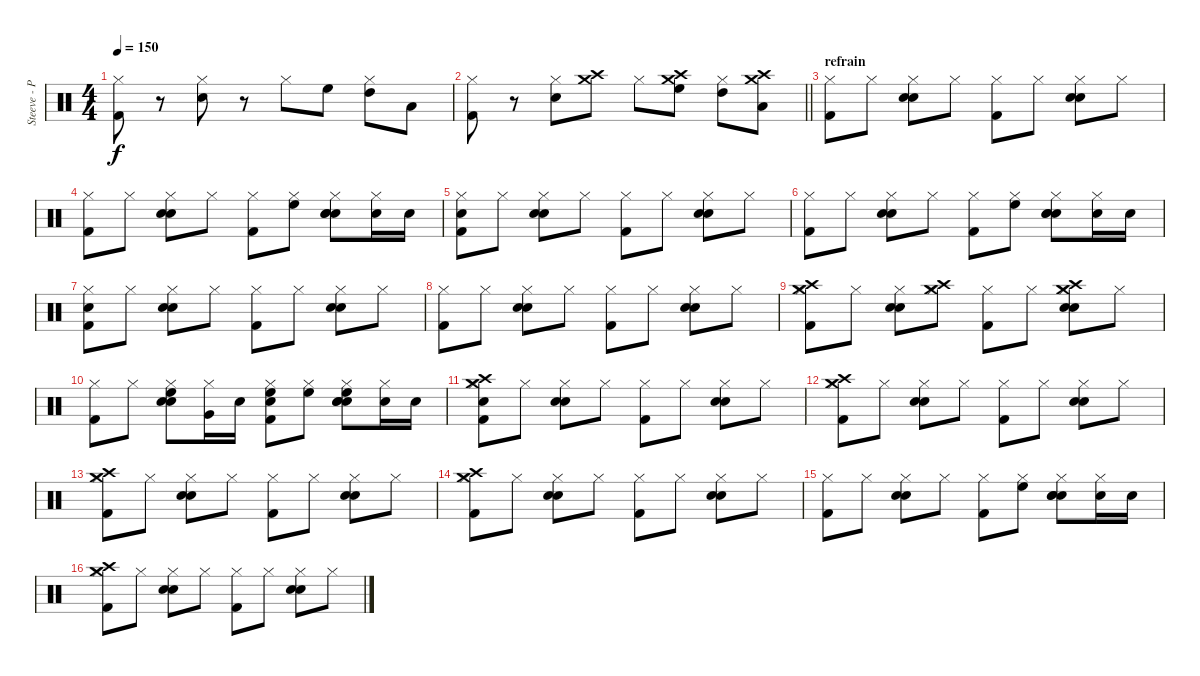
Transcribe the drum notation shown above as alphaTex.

\track ("Steeve - Percussions" "Steeve - P") {instrument percussion}
\staff {score}
\articulation defaults
\ts (4 4)
\tempo 150
\clef neutral
\ks c
("Hi-Hat (closed)" "Kick (hit) 2").8{dy f} r.8 ("Hi-Hat (closed)" "Snare (hit) 2").8 r.8 "Hi-Hat (closed)".8 "High Floor Tom (hit)".8 ("Hi-Hat (closed)" "High Tom (hit)").8 "Low Tom (hit)".8 |
\barLineRight lightlight
("Hi-Hat (closed)" "Kick (hit) 2").8 r.8 ("Hi-Hat (closed)" "Snare (hit) 2").8 ("Crash medium (hit)" "Crash high (hit)").8 "Hi-Hat (closed)".8 ("High Floor Tom (hit)" "Crash medium (hit)" "Crash high (hit)").8 ("Hi-Hat (closed)" "High Tom (hit)").8 ("Low Tom (hit)" "Crash medium (hit)" "Crash high (hit)").8 |
\section ("" "refrain")
("Hi-Hat (closed)" "Kick (hit) 2").8 "Hi-Hat (closed)".8 ("Hi-Hat (closed)" "Snare (hit) 2" "Electric Snare (hit)").8 "Hi-Hat (closed)".8 ("Hi-Hat (closed)" "Kick (hit) 2").8 "Hi-Hat (closed)".8 ("Hi-Hat (closed)" "Snare (hit) 2" "Electric Snare (hit)").8 "Hi-Hat (closed)".8 |
("Hi-Hat (closed)" "Kick (hit) 2").8 "Hi-Hat (closed)".8 ("Hi-Hat (closed)" "Snare (hit) 2" "Electric Snare (hit)").8 "Hi-Hat (closed)".8 ("Hi-Hat (closed)" "Kick (hit) 2").8 ("Hi-Hat (closed)" "High Floor Tom (hit)").8 ("Hi-Hat (closed)" "Snare (hit) 2" "Electric Snare (hit)" "Snare (hit) 2").8 ("Hi-Hat (closed)" "Snare (hit) 2").16 "Snare (hit) 2".16 |
("Hi-Hat (closed)" "Kick (hit) 2" "Snare (hit) 2").8 "Hi-Hat (closed)".8 ("Hi-Hat (closed)" "Snare (hit) 2" "Electric Snare (hit)").8 "Hi-Hat (closed)".8 ("Hi-Hat (closed)" "Kick (hit) 2").8 "Hi-Hat (closed)".8 ("Hi-Hat (closed)" "Snare (hit) 2" "Electric Snare (hit)").8 "Hi-Hat (closed)".8 |
("Hi-Hat (closed)" "Kick (hit) 2").8 "Hi-Hat (closed)".8 ("Hi-Hat (closed)" "Snare (hit) 2" "Electric Snare (hit)").8 "Hi-Hat (closed)".8 ("Hi-Hat (closed)" "Kick (hit) 2").8 ("Hi-Hat (closed)" "High Floor Tom (hit)").8 ("Hi-Hat (closed)" "Snare (hit) 2" "Electric Snare (hit)" "Snare (hit) 2").8 ("Hi-Hat (closed)" "Snare (hit) 2").16 "Snare (hit) 2".16 |
("Hi-Hat (closed)" "Kick (hit) 2" "Snare (hit) 2").8 "Hi-Hat (closed)".8 ("Hi-Hat (closed)" "Snare (hit) 2" "Electric Snare (hit)").8 "Hi-Hat (closed)".8 ("Hi-Hat (closed)" "Kick (hit) 2").8 "Hi-Hat (closed)".8 ("Hi-Hat (closed)" "Snare (hit) 2" "Electric Snare (hit)").8 "Hi-Hat (closed)".8 |
("Hi-Hat (closed)" "Kick (hit) 2").8 "Hi-Hat (closed)".8 ("Hi-Hat (closed)" "Snare (hit) 2" "Electric Snare (hit)").8 "Hi-Hat (closed)".8 ("Hi-Hat (closed)" "Kick (hit) 2").8 "Hi-Hat (closed)".8 ("Hi-Hat (closed)" "Snare (hit) 2" "Electric Snare (hit)").8 "Hi-Hat (closed)".8 |
("Hi-Hat (closed)" "Kick (hit) 2" "Crash high (hit)" "Crash medium (hit)").8 "Hi-Hat (closed)".8 ("Hi-Hat (closed)" "Snare (hit) 2" "Electric Snare (hit)").8 ("Hi-Hat (closed)" "Crash high (hit)" "Crash medium (hit)").8 ("Hi-Hat (closed)" "Kick (hit) 2").8 "Hi-Hat (closed)".8 ("Hi-Hat (closed)" "Snare (hit) 2" "Electric Snare (hit)" "Crash high (hit)" "Crash medium (hit)").8 "Hi-Hat (closed)".8 |
("Hi-Hat (closed)" "Kick (hit) 2").8 "Hi-Hat (closed)".8 ("Hi-Hat (closed)" "Snare (hit) 2" "Electric Snare (hit)" "High Floor Tom (hit)").8 ("Hi-Hat (closed)" "Very Low Tom (hit)").16 "Snare (hit) 2".16 ("Hi-Hat (closed)" "Kick (hit) 2" "Snare (hit) 2" "High Floor Tom (hit)").8 ("Hi-Hat (closed)" "High Floor Tom (hit)").8 ("Hi-Hat (closed)" "Snare (hit) 2" "Electric Snare (hit)" "Snare (hit) 2" "High Floor Tom (hit)").8 ("Hi-Hat (closed)" "Snare (hit) 2").16 "Snare (hit) 2".16 |
("Hi-Hat (closed)" "Kick (hit) 2" "Crash high (hit)" "Snare (hit) 2" "Crash medium (hit)").8 "Hi-Hat (closed)".8 ("Hi-Hat (closed)" "Snare (hit) 2" "Electric Snare (hit)").8 "Hi-Hat (closed)".8 ("Hi-Hat (closed)" "Kick (hit) 2").8 "Hi-Hat (closed)".8 ("Hi-Hat (closed)" "Snare (hit) 2" "Electric Snare (hit)").8 "Hi-Hat (closed)".8 |
("Hi-Hat (closed)" "Kick (hit) 2" "Crash medium (hit)" "Crash high (hit)").8 "Hi-Hat (closed)".8 ("Hi-Hat (closed)" "Snare (hit) 2" "Electric Snare (hit)").8 "Hi-Hat (closed)".8 ("Hi-Hat (closed)" "Kick (hit) 2").8 "Hi-Hat (closed)".8 ("Hi-Hat (closed)" "Snare (hit) 2" "Electric Snare (hit)").8 "Hi-Hat (closed)".8 |
("Hi-Hat (closed)" "Kick (hit) 2" "Crash medium (hit)" "Crash high (hit)").8 "Hi-Hat (closed)".8 ("Hi-Hat (closed)" "Snare (hit) 2" "Electric Snare (hit)").8 "Hi-Hat (closed)".8 ("Hi-Hat (closed)" "Kick (hit) 2").8 "Hi-Hat (closed)".8 ("Hi-Hat (closed)" "Snare (hit) 2" "Electric Snare (hit)").8 "Hi-Hat (closed)".8 |
("Hi-Hat (closed)" "Kick (hit) 2" "Crash medium (hit)" "Crash high (hit)").8 "Hi-Hat (closed)".8 ("Hi-Hat (closed)" "Snare (hit) 2" "Electric Snare (hit)").8 "Hi-Hat (closed)".8 ("Hi-Hat (closed)" "Kick (hit) 2").8 "Hi-Hat (closed)".8 ("Hi-Hat (closed)" "Snare (hit) 2" "Electric Snare (hit)").8 "Hi-Hat (closed)".8 |
("Hi-Hat (closed)" "Kick (hit) 2").8 "Hi-Hat (closed)".8 ("Hi-Hat (closed)" "Snare (hit) 2" "Electric Snare (hit)").8 "Hi-Hat (closed)".8 ("Hi-Hat (closed)" "Kick (hit) 2").8 ("Hi-Hat (closed)" "High Floor Tom (hit)").8 ("Hi-Hat (closed)" "Snare (hit) 2" "Electric Snare (hit)" "Snare (hit) 2").8 ("Hi-Hat (closed)" "Snare (hit) 2").16 "Snare (hit) 2".16 |
("Hi-Hat (closed)" "Kick (hit) 2" "Crash medium (hit)" "Crash high (hit)").8 "Hi-Hat (closed)".8 ("Hi-Hat (closed)" "Snare (hit) 2" "Electric Snare (hit)").8 "Hi-Hat (closed)".8 ("Hi-Hat (closed)" "Kick (hit) 2").8 "Hi-Hat (closed)".8 ("Hi-Hat (closed)" "Snare (hit) 2" "Electric Snare (hit)").8 "Hi-Hat (closed)".8
